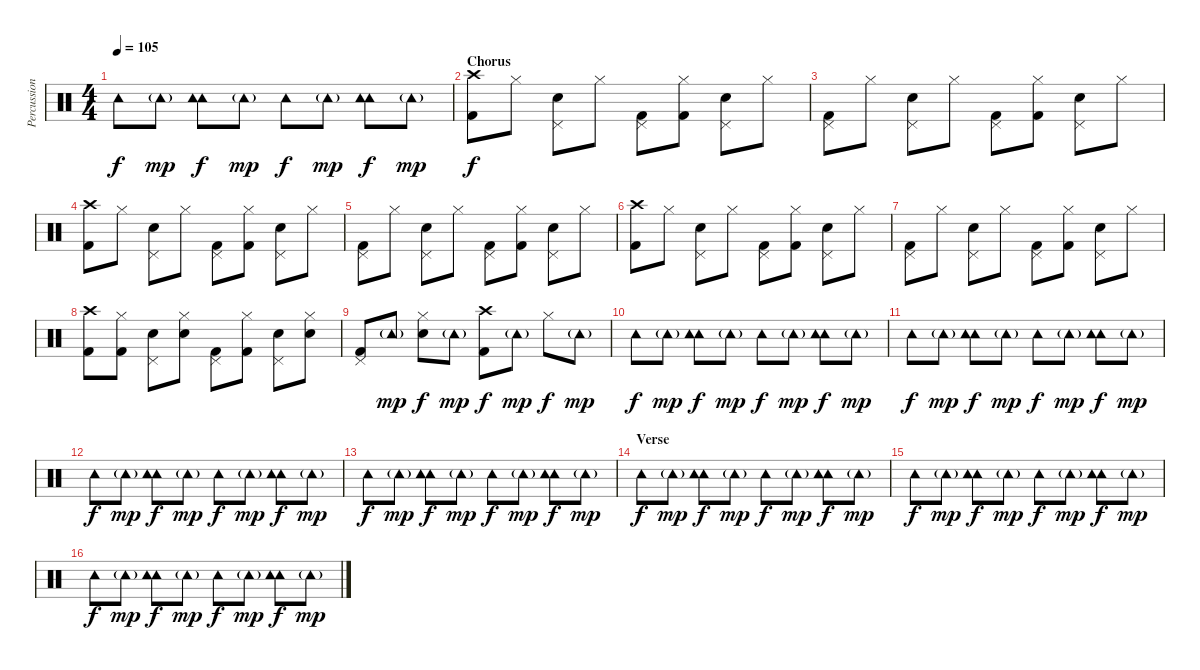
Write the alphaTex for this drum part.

\track ("Percussion" "Percussion") {instrument percussion}
\staff {score}
\articulation defaults
\ts (4 4)
\tempo 105
\clef neutral
\ks c "Tambourine (hit)".8{dy f} "Tambourine (hit)"{g}.8{dy mp}
("Tambourine (hit)" "Tambourine (hit)").8{dy f} "Tambourine (hit)"{g}.8{dy mp} "Tambourine (hit)".8{dy f} "Tambourine (hit)"{g}.8{dy mp} ("Tambourine (hit)" "Tambourine (hit)").8{dy f} "Tambourine (hit)"{g}.8{dy mp} |
\section ("" "Chorus")
("Kick (hit) 2" "Crash high (hit)").8{dy f} "Hi-Hat (closed)".8 ("Electric Snare (hit)" "Pedal Hi-Hat (hit)").8 "Hi-Hat (closed)".8 ("Kick (hit) 2" "Pedal Hi-Hat (hit)").8 ("Kick (hit) 2" "Hi-Hat (closed)").8 ("Electric Snare (hit)" "Pedal Hi-Hat (hit)").8 "Hi-Hat (closed)".8 |
("Kick (hit) 2" "Pedal Hi-Hat (hit)").8 "Hi-Hat (closed)".8 ("Electric Snare (hit)" "Pedal Hi-Hat (hit)").8 "Hi-Hat (closed)".8 ("Kick (hit) 2" "Pedal Hi-Hat (hit)").8 ("Kick (hit) 2" "Hi-Hat (closed)").8 ("Electric Snare (hit)" "Pedal Hi-Hat (hit)").8 "Hi-Hat (closed)".8 |
("Kick (hit) 2" "Crash high (hit)").8 "Hi-Hat (closed)".8 ("Electric Snare (hit)" "Pedal Hi-Hat (hit)").8 "Hi-Hat (closed)".8 ("Kick (hit) 2" "Pedal Hi-Hat (hit)").8 ("Kick (hit) 2" "Hi-Hat (closed)").8 ("Electric Snare (hit)" "Pedal Hi-Hat (hit)").8 "Hi-Hat (closed)".8 |
("Kick (hit) 2" "Pedal Hi-Hat (hit)").8 "Hi-Hat (closed)".8 ("Electric Snare (hit)" "Pedal Hi-Hat (hit)").8 "Hi-Hat (closed)".8 ("Kick (hit) 2" "Pedal Hi-Hat (hit)").8 ("Kick (hit) 2" "Hi-Hat (closed)").8 ("Electric Snare (hit)" "Pedal Hi-Hat (hit)").8 "Hi-Hat (closed)".8 |
("Kick (hit) 2" "Crash high (hit)").8 "Hi-Hat (closed)".8 ("Electric Snare (hit)" "Pedal Hi-Hat (hit)").8 "Hi-Hat (closed)".8 ("Kick (hit) 2" "Pedal Hi-Hat (hit)").8 ("Kick (hit) 2" "Hi-Hat (closed)").8 ("Electric Snare (hit)" "Pedal Hi-Hat (hit)").8 "Hi-Hat (closed)".8 |
("Kick (hit) 2" "Pedal Hi-Hat (hit)").8 "Hi-Hat (closed)".8 ("Electric Snare (hit)" "Pedal Hi-Hat (hit)").8 "Hi-Hat (closed)".8 ("Kick (hit) 2" "Pedal Hi-Hat (hit)").8 ("Kick (hit) 2" "Hi-Hat (closed)").8 ("Electric Snare (hit)" "Pedal Hi-Hat (hit)").8 "Hi-Hat (closed)".8 |
("Kick (hit) 2" "Crash high (hit)").8 ("Kick (hit) 2" "Hi-Hat (closed)").8 ("Electric Snare (hit)" "Pedal Hi-Hat (hit)").8 ("Electric Snare (hit)" "Hi-Hat (closed)").8 ("Kick (hit) 2" "Pedal Hi-Hat (hit)").8 ("Kick (hit) 2" "Hi-Hat (closed)").8 ("Electric Snare (hit)" "Pedal Hi-Hat (hit)").8 ("Electric Snare (hit)" "Hi-Hat (closed)").8 |
("Kick (hit) 2" "Pedal Hi-Hat (hit)").8 "Tambourine (hit)"{g}.8{dy mp} ("Electric Snare (hit)" "Hi-Hat (closed)").8{dy f} "Tambourine (hit)"{g}.8{dy mp} ("Kick (hit) 2" "Crash high (hit)").8{dy f} "Tambourine (hit)"{g}.8{dy mp} "Hi-Hat (closed)".8{dy f} "Tambourine (hit)"{g}.8{dy mp} |
"Tambourine (hit)".8{dy f} "Tambourine (hit)"{g}.8{dy mp} ("Tambourine (hit)" "Tambourine (hit)").8{dy f} "Tambourine (hit)"{g}.8{dy mp} "Tambourine (hit)".8{dy f} "Tambourine (hit)"{g}.8{dy mp} ("Tambourine (hit)" "Tambourine (hit)").8{dy f} "Tambourine (hit)"{g}.8{dy mp} |
"Tambourine (hit)".8{dy f} "Tambourine (hit)"{g}.8{dy mp} ("Tambourine (hit)" "Tambourine (hit)").8{dy f} "Tambourine (hit)"{g}.8{dy mp} "Tambourine (hit)".8{dy f} "Tambourine (hit)"{g}.8{dy mp} ("Tambourine (hit)" "Tambourine (hit)").8{dy f} "Tambourine (hit)"{g}.8{dy mp} |
"Tambourine (hit)".8{dy f} "Tambourine (hit)"{g}.8{dy mp} ("Tambourine (hit)" "Tambourine (hit)").8{dy f} "Tambourine (hit)"{g}.8{dy mp} "Tambourine (hit)".8{dy f} "Tambourine (hit)"{g}.8{dy mp} ("Tambourine (hit)" "Tambourine (hit)").8{dy f} "Tambourine (hit)"{g}.8{dy mp} |
"Tambourine (hit)".8{dy f} "Tambourine (hit)"{g}.8{dy mp} ("Tambourine (hit)" "Tambourine (hit)").8{dy f} "Tambourine (hit)"{g}.8{dy mp} "Tambourine (hit)".8{dy f} "Tambourine (hit)"{g}.8{dy mp} ("Tambourine (hit)" "Tambourine (hit)").8{dy f} "Tambourine (hit)"{g}.8{dy mp} |
\section ("" "Verse")
"Tambourine (hit)".8{dy f} "Tambourine (hit)"{g}.8{dy mp} ("Tambourine (hit)" "Tambourine (hit)").8{dy f} "Tambourine (hit)"{g}.8{dy mp} "Tambourine (hit)".8{dy f} "Tambourine (hit)"{g}.8{dy mp} ("Tambourine (hit)" "Tambourine (hit)").8{dy f} "Tambourine (hit)"{g}.8{dy mp} |
"Tambourine (hit)".8{dy f} "Tambourine (hit)"{g}.8{dy mp} ("Tambourine (hit)" "Tambourine (hit)").8{dy f} "Tambourine (hit)"{g}.8{dy mp} "Tambourine (hit)".8{dy f} "Tambourine (hit)"{g}.8{dy mp} ("Tambourine (hit)" "Tambourine (hit)").8{dy f} "Tambourine (hit)"{g}.8{dy mp} |
"Tambourine (hit)".8{dy f} "Tambourine (hit)"{g}.8{dy mp} ("Tambourine (hit)" "Tambourine (hit)").8{dy f} "Tambourine (hit)"{g}.8{dy mp} "Tambourine (hit)".8{dy f} "Tambourine (hit)"{g}.8{dy mp} ("Tambourine (hit)" "Tambourine (hit)").8{dy f} "Tambourine (hit)"{g}.8{dy mp}
